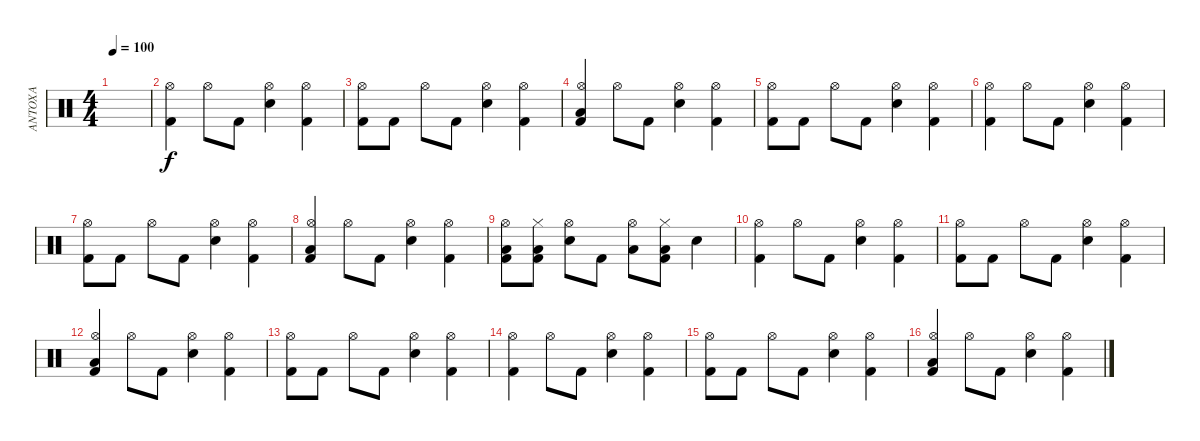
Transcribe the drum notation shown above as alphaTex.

\track ("ANTOXA" "ANTOXA") {instrument percussion}
\staff {score}
\articulation defaults
\ts (4 4)
\tempo 100
\clef neutral
\ks c
|
("Kick (hit) 2" "Hi-Hat (open)").4 "Hi-Hat (open)".8 "Kick (hit) 2".8 ("Hi-Hat (open)" "Electric Snare (hit)").4 ("Kick (hit) 2" "Hi-Hat (open)").4 |
("Kick (hit) 2" "Hi-Hat (open)").8 "Kick (hit) 2".8 "Hi-Hat (open)".8 "Kick (hit) 2".8 ("Hi-Hat (open)" "Electric Snare (hit)").4 ("Kick (hit) 2" "Hi-Hat (open)").4 |
("Kick (hit) 2" "Hi-Hat (open)" "Low Floor Tom (hit)").4 "Hi-Hat (open)".8 "Kick (hit) 2".8 ("Hi-Hat (open)" "Electric Snare (hit)").4 ("Kick (hit) 2" "Hi-Hat (open)").4 |
("Kick (hit) 2" "Hi-Hat (open)").8 "Kick (hit) 2".8 "Hi-Hat (open)".8 "Kick (hit) 2".8 ("Hi-Hat (open)" "Electric Snare (hit)").4 ("Kick (hit) 2" "Hi-Hat (open)").4 |
("Kick (hit) 2" "Hi-Hat (open)").4 "Hi-Hat (open)".8 "Kick (hit) 2".8 ("Hi-Hat (open)" "Electric Snare (hit)").4 ("Kick (hit) 2" "Hi-Hat (open)").4 |
("Kick (hit) 2" "Hi-Hat (open)").8 "Kick (hit) 2".8 "Hi-Hat (open)".8 "Kick (hit) 2".8 ("Hi-Hat (open)" "Electric Snare (hit)").4 ("Kick (hit) 2" "Hi-Hat (open)").4 |
("Kick (hit) 2" "Hi-Hat (open)" "Low Floor Tom (hit)").4 "Hi-Hat (open)".8 "Kick (hit) 2".8 ("Hi-Hat (open)" "Electric Snare (hit)").4 ("Kick (hit) 2" "Hi-Hat (open)").4 |
("Kick (hit) 2" "Hi-Hat (open)" "Low Floor Tom (hit)").8 ("Kick (hit) 2" "Hi-Hat (closed)" "Low Floor Tom (hit)").8 ("Hi-Hat (open)" "Electric Snare (hit)").8 "Kick (hit) 2".8 ("Hi-Hat (open)" "Low Floor Tom (hit)").8 ("Kick (hit) 2" "Hi-Hat (closed)" "Low Floor Tom (hit)").8 "Electric Snare (hit)".4 |
("Kick (hit) 2" "Hi-Hat (open)").4 "Hi-Hat (open)".8 "Kick (hit) 2".8 ("Hi-Hat (open)" "Electric Snare (hit)").4 ("Kick (hit) 2" "Hi-Hat (open)").4 |
("Kick (hit) 2" "Hi-Hat (open)").8 "Kick (hit) 2".8 "Hi-Hat (open)".8 "Kick (hit) 2".8 ("Hi-Hat (open)" "Electric Snare (hit)").4 ("Kick (hit) 2" "Hi-Hat (open)").4 |
("Kick (hit) 2" "Hi-Hat (open)" "Low Floor Tom (hit)").4 "Hi-Hat (open)".8 "Kick (hit) 2".8 ("Hi-Hat (open)" "Electric Snare (hit)").4 ("Kick (hit) 2" "Hi-Hat (open)").4 |
("Kick (hit) 2" "Hi-Hat (open)").8 "Kick (hit) 2".8 "Hi-Hat (open)".8 "Kick (hit) 2".8 ("Hi-Hat (open)" "Electric Snare (hit)").4 ("Kick (hit) 2" "Hi-Hat (open)").4 |
("Kick (hit) 2" "Hi-Hat (open)").4 "Hi-Hat (open)".8 "Kick (hit) 2".8 ("Hi-Hat (open)" "Electric Snare (hit)").4 ("Kick (hit) 2" "Hi-Hat (open)").4 |
("Kick (hit) 2" "Hi-Hat (open)").8 "Kick (hit) 2".8 "Hi-Hat (open)".8 "Kick (hit) 2".8 ("Hi-Hat (open)" "Electric Snare (hit)").4 ("Kick (hit) 2" "Hi-Hat (open)").4 |
("Kick (hit) 2" "Hi-Hat (open)" "Low Floor Tom (hit)").4 "Hi-Hat (open)".8 "Kick (hit) 2".8 ("Hi-Hat (open)" "Electric Snare (hit)").4 ("Kick (hit) 2" "Hi-Hat (open)").4
